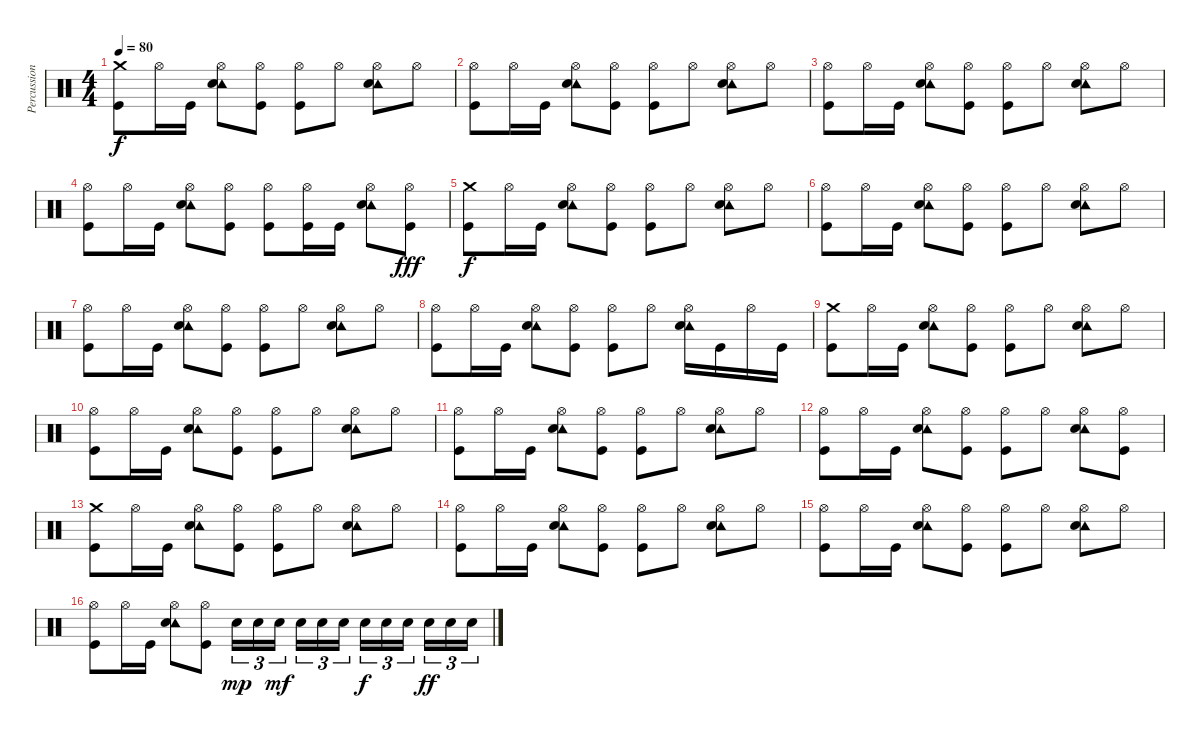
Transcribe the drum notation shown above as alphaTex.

\track ("Percussion" "Percussion") {instrument percussion}
\staff {score}
\articulation defaults
\ts (4 4)
\tempo 80
\clef neutral
\ks c
("Crash medium (hit)" "Kick (hit)").8{dy f} "Hi-Hat (open)".16 "Kick (hit)".16 ("Hi-Hat (open)" "Tambourine (hit)" "Electric Snare (hit)").8 ("Hi-Hat (open)" "Kick (hit)").8 ("Hi-Hat (open)" "Kick (hit)").8 "Hi-Hat (open)".8 ("Hi-Hat (open)" "Tambourine (hit)" "Electric Snare (hit)").8 "Hi-Hat (open)".8 |
("Hi-Hat (open)" "Kick (hit)").8 "Hi-Hat (open)".16 "Kick (hit)".16 ("Hi-Hat (open)" "Tambourine (hit)" "Electric Snare (hit)").8 ("Hi-Hat (open)" "Kick (hit)").8 ("Hi-Hat (open)" "Kick (hit)").8 "Hi-Hat (open)".8 ("Hi-Hat (open)" "Tambourine (hit)" "Electric Snare (hit)").8 "Hi-Hat (open)".8 |
("Hi-Hat (open)" "Kick (hit)").8 "Hi-Hat (open)".16 "Kick (hit)".16 ("Hi-Hat (open)" "Tambourine (hit)" "Electric Snare (hit)").8 ("Hi-Hat (open)" "Kick (hit)").8 ("Hi-Hat (open)" "Kick (hit)").8 "Hi-Hat (open)".8 ("Hi-Hat (open)" "Tambourine (hit)" "Electric Snare (hit)").8 "Hi-Hat (open)".8 |
("Hi-Hat (open)" "Kick (hit)").8 "Hi-Hat (open)".16 "Kick (hit)".16 ("Hi-Hat (open)" "Tambourine (hit)" "Electric Snare (hit)").8 ("Hi-Hat (open)" "Kick (hit)").8 ("Hi-Hat (open)" "Kick (hit)").8 ("Hi-Hat (open)" "Kick (hit)").16 "Kick (hit)".16 ("Hi-Hat (open)" "Tambourine (hit)" "Electric Snare (hit)").8 ("Hi-Hat (open)" "Kick (hit)").8{dy fff} |
("Crash medium (hit)" "Kick (hit)").8{dy f} "Hi-Hat (open)".16 "Kick (hit)".16 ("Hi-Hat (open)" "Tambourine (hit)" "Electric Snare (hit)").8 ("Hi-Hat (open)" "Kick (hit)").8 ("Hi-Hat (open)" "Kick (hit)").8 "Hi-Hat (open)".8 ("Hi-Hat (open)" "Tambourine (hit)" "Electric Snare (hit)").8 "Hi-Hat (open)".8 |
("Hi-Hat (open)" "Kick (hit)").8 "Hi-Hat (open)".16 "Kick (hit)".16 ("Hi-Hat (open)" "Tambourine (hit)" "Electric Snare (hit)").8 ("Hi-Hat (open)" "Kick (hit)").8 ("Hi-Hat (open)" "Kick (hit)").8 "Hi-Hat (open)".8 ("Hi-Hat (open)" "Tambourine (hit)" "Electric Snare (hit)").8 "Hi-Hat (open)".8 |
("Hi-Hat (open)" "Kick (hit)").8 "Hi-Hat (open)".16 "Kick (hit)".16 ("Hi-Hat (open)" "Tambourine (hit)" "Electric Snare (hit)").8 ("Hi-Hat (open)" "Kick (hit)").8 ("Hi-Hat (open)" "Kick (hit)").8 "Hi-Hat (open)".8 ("Hi-Hat (open)" "Tambourine (hit)" "Electric Snare (hit)").8 "Hi-Hat (open)".8 |
("Hi-Hat (open)" "Kick (hit)").8 "Hi-Hat (open)".16 "Kick (hit)".16 ("Hi-Hat (open)" "Tambourine (hit)" "Electric Snare (hit)").8 ("Hi-Hat (open)" "Kick (hit)").8 ("Hi-Hat (open)" "Kick (hit)").8 "Hi-Hat (open)".8 ("Hi-Hat (open)" "Tambourine (hit)" "Electric Snare (hit)").16 "Kick (hit)".16 "Hi-Hat (open)".16 "Kick (hit)".16 |
("Crash medium (hit)" "Kick (hit)").8 "Hi-Hat (open)".16 "Kick (hit)".16 ("Hi-Hat (open)" "Tambourine (hit)" "Electric Snare (hit)").8 ("Hi-Hat (open)" "Kick (hit)").8 ("Hi-Hat (open)" "Kick (hit)").8 "Hi-Hat (open)".8 ("Hi-Hat (open)" "Tambourine (hit)" "Electric Snare (hit)").8 "Hi-Hat (open)".8 |
("Hi-Hat (open)" "Kick (hit)").8 "Hi-Hat (open)".16 "Kick (hit)".16 ("Hi-Hat (open)" "Tambourine (hit)" "Electric Snare (hit)").8 ("Hi-Hat (open)" "Kick (hit)").8 ("Hi-Hat (open)" "Kick (hit)").8 "Hi-Hat (open)".8 ("Hi-Hat (open)" "Tambourine (hit)" "Electric Snare (hit)").8 "Hi-Hat (open)".8 |
("Hi-Hat (open)" "Kick (hit)").8 "Hi-Hat (open)".16 "Kick (hit)".16 ("Hi-Hat (open)" "Tambourine (hit)" "Electric Snare (hit)").8 ("Hi-Hat (open)" "Kick (hit)").8 ("Hi-Hat (open)" "Kick (hit)").8 "Hi-Hat (open)".8 ("Hi-Hat (open)" "Tambourine (hit)" "Electric Snare (hit)").8 "Hi-Hat (open)".8 |
("Hi-Hat (open)" "Kick (hit)").8 "Hi-Hat (open)".16 "Kick (hit)".16 ("Hi-Hat (open)" "Tambourine (hit)" "Electric Snare (hit)").8 ("Hi-Hat (open)" "Kick (hit)").8 ("Hi-Hat (open)" "Kick (hit)").8 "Hi-Hat (open)".8 ("Hi-Hat (open)" "Tambourine (hit)" "Electric Snare (hit)").8 ("Hi-Hat (open)" "Kick (hit)").8 |
("Crash medium (hit)" "Kick (hit)").8 "Hi-Hat (open)".16 "Kick (hit)".16 ("Hi-Hat (open)" "Tambourine (hit)" "Electric Snare (hit)").8 ("Hi-Hat (open)" "Kick (hit)").8 ("Hi-Hat (open)" "Kick (hit)").8 "Hi-Hat (open)".8 ("Hi-Hat (open)" "Tambourine (hit)" "Electric Snare (hit)").8 "Hi-Hat (open)".8 |
("Hi-Hat (open)" "Kick (hit)").8 "Hi-Hat (open)".16 "Kick (hit)".16 ("Hi-Hat (open)" "Tambourine (hit)" "Electric Snare (hit)").8 ("Hi-Hat (open)" "Kick (hit)").8 ("Hi-Hat (open)" "Kick (hit)").8 "Hi-Hat (open)".8 ("Hi-Hat (open)" "Tambourine (hit)" "Electric Snare (hit)").8 "Hi-Hat (open)".8 |
("Hi-Hat (open)" "Kick (hit)").8 "Hi-Hat (open)".16 "Kick (hit)".16 ("Hi-Hat (open)" "Tambourine (hit)" "Electric Snare (hit)").8 ("Hi-Hat (open)" "Kick (hit)").8 ("Hi-Hat (open)" "Kick (hit)").8 "Hi-Hat (open)".8 ("Hi-Hat (open)" "Tambourine (hit)" "Electric Snare (hit)").8 "Hi-Hat (open)".8 |
("Hi-Hat (open)" "Kick (hit)").8 "Hi-Hat (open)".16 "Kick (hit)".16 ("Hi-Hat (open)" "Tambourine (hit)" "Electric Snare (hit)").8 ("Hi-Hat (open)" "Kick (hit)").8 "Electric Snare (hit)".16{tu (3 2) dy mp} "Electric Snare (hit)".16{tu (3 2)} "Electric Snare (hit)".16{tu (3 2) dy mf} "Electric Snare (hit)".16{tu (3 2)} "Electric Snare (hit)".16{tu (3 2)} "Electric Snare (hit)".16{tu (3 2)} "Electric Snare (hit)".16{tu (3 2) dy f} "Electric Snare (hit)".16{tu (3 2)} "Electric Snare (hit)".16{tu (3 2)} "Electric Snare (hit)".16{tu (3 2) dy ff} "Electric Snare (hit)".16{tu (3 2)} "Electric Snare (hit)".16{tu (3 2)}
